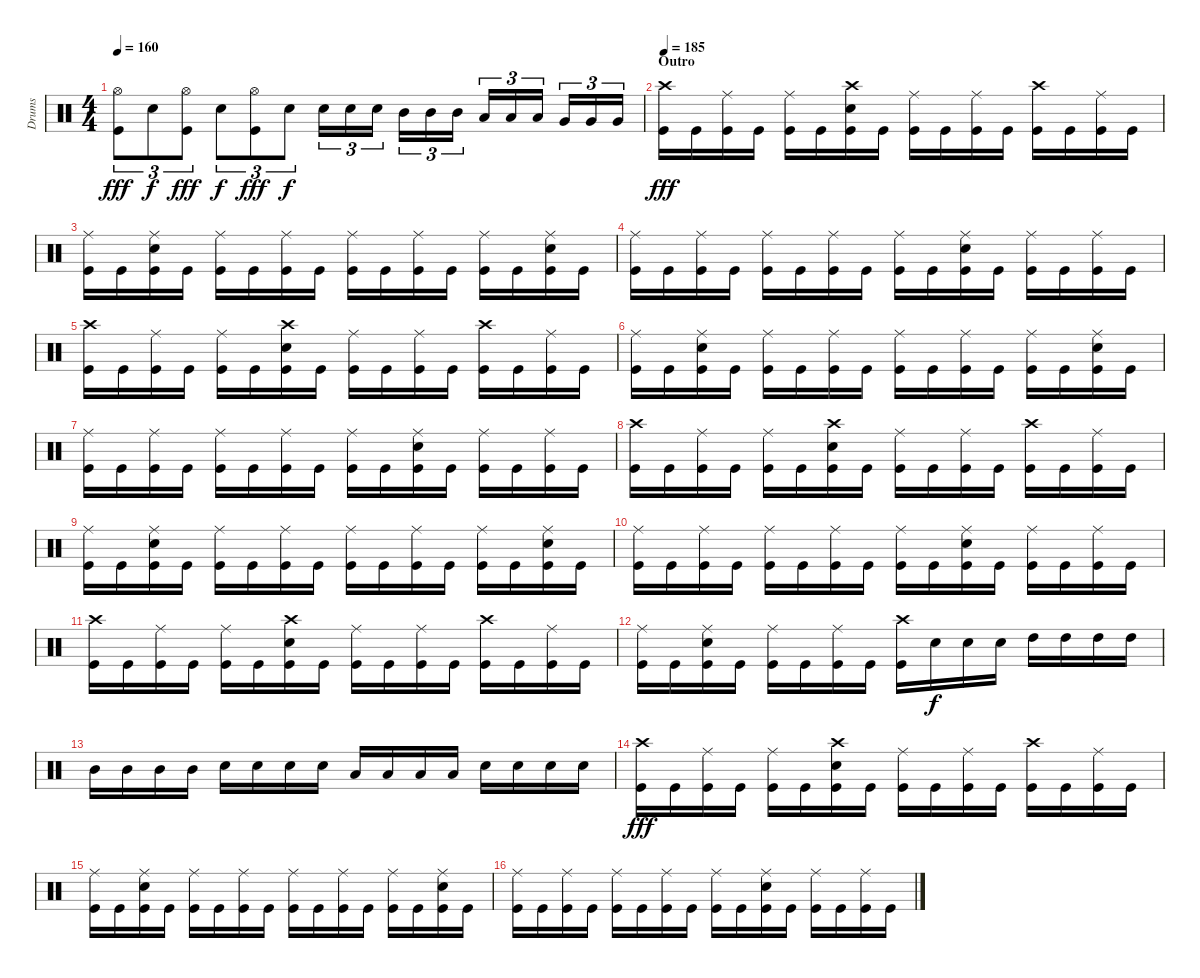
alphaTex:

\track ("Drums" "Drums") {instrument percussion}
\staff {score}
\articulation defaults
\ts (4 4)
\tempo 160
\clef neutral
\ks c
("Hi-Hat (open)" "Kick (hit)").8{tu (3 2) dy fff} "Electric Snare (hit)".8{tu (3 2) dy f} ("Hi-Hat (open)" "Kick (hit)").8{tu (3 2) dy fff} "Electric Snare (hit)".8{tu (3 2) dy f} ("Hi-Hat (open)" "Kick (hit)").8{tu (3 2) dy fff} "Electric Snare (hit)".8{tu (3 2) dy f} "Electric Snare (hit)".16{tu (3 2)} "Electric Snare (hit)".16{tu (3 2)} "Electric Snare (hit)".16{tu (3 2)} "Mid Tom (hit)".16{tu (3 2)} "Mid Tom (hit)".16{tu (3 2)} "Mid Tom (hit)".16{tu (3 2)} "Low Tom (hit)".16{tu (3 2)} "Low Tom (hit)".16{tu (3 2)} "Low Tom (hit)".16{tu (3 2)} "Very Low Tom (hit)".16{tu (3 2)} "Very Low Tom (hit)".16{tu (3 2)} "Very Low Tom (hit)".16{tu (3 2)} |
\section ("" "Outro")
\tempo 185
("Crash high (hit)" "Kick (hit)").16{dy fff} "Kick (hit)".16 ("Ride (middle)" "Kick (hit)").16 "Kick (hit)".16 ("Ride (middle)" "Kick (hit)").16 "Kick (hit)".16 ("Crash high (hit)" "Electric Snare (hit)" "Kick (hit)").16 "Kick (hit)".16 ("Ride (middle)" "Kick (hit)").16 "Kick (hit)".16 ("Ride (middle)" "Kick (hit)").16 "Kick (hit)".16 ("Crash high (hit)" "Kick (hit)").16 "Kick (hit)".16 ("Ride (middle)" "Kick (hit)").16 "Kick (hit)".16 |
("Ride (middle)" "Kick (hit)").16 "Kick (hit)".16 ("Ride (middle)" "Electric Snare (hit)" "Kick (hit)").16 "Kick (hit)".16 ("Ride (middle)" "Kick (hit)").16 "Kick (hit)".16 ("Ride (middle)" "Kick (hit)").16 "Kick (hit)".16 ("Ride (middle)" "Kick (hit)").16 "Kick (hit)".16 ("Ride (middle)" "Kick (hit)").16 "Kick (hit)".16 ("Ride (middle)" "Kick (hit)").16 "Kick (hit)".16 ("Ride (middle)" "Electric Snare (hit)" "Kick (hit)").16 "Kick (hit)".16 |
("Ride (middle)" "Kick (hit)").16 "Kick (hit)".16 ("Ride (middle)" "Kick (hit)").16 "Kick (hit)".16 ("Ride (middle)" "Kick (hit)").16 "Kick (hit)".16 ("Ride (middle)" "Kick (hit)").16 "Kick (hit)".16 ("Ride (middle)" "Kick (hit)").16 "Kick (hit)".16 ("Ride (middle)" "Electric Snare (hit)" "Kick (hit)").16 "Kick (hit)".16 ("Ride (middle)" "Kick (hit)").16 "Kick (hit)".16 ("Ride (middle)" "Kick (hit)").16 "Kick (hit)".16 |
("Crash high (hit)" "Kick (hit)").16 "Kick (hit)".16 ("Ride (middle)" "Kick (hit)").16 "Kick (hit)".16 ("Ride (middle)" "Kick (hit)").16 "Kick (hit)".16 ("Crash high (hit)" "Electric Snare (hit)" "Kick (hit)").16 "Kick (hit)".16 ("Ride (middle)" "Kick (hit)").16 "Kick (hit)".16 ("Ride (middle)" "Kick (hit)").16 "Kick (hit)".16 ("Crash high (hit)" "Kick (hit)").16 "Kick (hit)".16 ("Ride (middle)" "Kick (hit)").16 "Kick (hit)".16 |
("Ride (middle)" "Kick (hit)").16 "Kick (hit)".16 ("Ride (middle)" "Electric Snare (hit)" "Kick (hit)").16 "Kick (hit)".16 ("Ride (middle)" "Kick (hit)").16 "Kick (hit)".16 ("Ride (middle)" "Kick (hit)").16 "Kick (hit)".16 ("Ride (middle)" "Kick (hit)").16 "Kick (hit)".16 ("Ride (middle)" "Kick (hit)").16 "Kick (hit)".16 ("Ride (middle)" "Kick (hit)").16 "Kick (hit)".16 ("Ride (middle)" "Electric Snare (hit)" "Kick (hit)").16 "Kick (hit)".16 |
("Ride (middle)" "Kick (hit)").16 "Kick (hit)".16 ("Ride (middle)" "Kick (hit)").16 "Kick (hit)".16 ("Ride (middle)" "Kick (hit)").16 "Kick (hit)".16 ("Ride (middle)" "Kick (hit)").16 "Kick (hit)".16 ("Ride (middle)" "Kick (hit)").16 "Kick (hit)".16 ("Ride (middle)" "Electric Snare (hit)" "Kick (hit)").16 "Kick (hit)".16 ("Ride (middle)" "Kick (hit)").16 "Kick (hit)".16 ("Ride (middle)" "Kick (hit)").16 "Kick (hit)".16 |
("Crash high (hit)" "Kick (hit)").16 "Kick (hit)".16 ("Ride (middle)" "Kick (hit)").16 "Kick (hit)".16 ("Ride (middle)" "Kick (hit)").16 "Kick (hit)".16 ("Crash high (hit)" "Electric Snare (hit)" "Kick (hit)").16 "Kick (hit)".16 ("Ride (middle)" "Kick (hit)").16 "Kick (hit)".16 ("Ride (middle)" "Kick (hit)").16 "Kick (hit)".16 ("Crash high (hit)" "Kick (hit)").16 "Kick (hit)".16 ("Ride (middle)" "Kick (hit)").16 "Kick (hit)".16 |
("Ride (middle)" "Kick (hit)").16 "Kick (hit)".16 ("Ride (middle)" "Electric Snare (hit)" "Kick (hit)").16 "Kick (hit)".16 ("Ride (middle)" "Kick (hit)").16 "Kick (hit)".16 ("Ride (middle)" "Kick (hit)").16 "Kick (hit)".16 ("Ride (middle)" "Kick (hit)").16 "Kick (hit)".16 ("Ride (middle)" "Kick (hit)").16 "Kick (hit)".16 ("Ride (middle)" "Kick (hit)").16 "Kick (hit)".16 ("Ride (middle)" "Electric Snare (hit)" "Kick (hit)").16 "Kick (hit)".16 |
("Ride (middle)" "Kick (hit)").16 "Kick (hit)".16 ("Ride (middle)" "Kick (hit)").16 "Kick (hit)".16 ("Ride (middle)" "Kick (hit)").16 "Kick (hit)".16 ("Ride (middle)" "Kick (hit)").16 "Kick (hit)".16 ("Ride (middle)" "Kick (hit)").16 "Kick (hit)".16 ("Ride (middle)" "Electric Snare (hit)" "Kick (hit)").16 "Kick (hit)".16 ("Ride (middle)" "Kick (hit)").16 "Kick (hit)".16 ("Ride (middle)" "Kick (hit)").16 "Kick (hit)".16 |
("Crash high (hit)" "Kick (hit)").16 "Kick (hit)".16 ("Ride (middle)" "Kick (hit)").16 "Kick (hit)".16 ("Ride (middle)" "Kick (hit)").16 "Kick (hit)".16 ("Crash high (hit)" "Electric Snare (hit)" "Kick (hit)").16 "Kick (hit)".16 ("Ride (middle)" "Kick (hit)").16 "Kick (hit)".16 ("Ride (middle)" "Kick (hit)").16 "Kick (hit)".16 ("Crash high (hit)" "Kick (hit)").16 "Kick (hit)".16 ("Ride (middle)" "Kick (hit)").16 "Kick (hit)".16 |
("Ride (middle)" "Kick (hit)").16 "Kick (hit)".16 ("Ride (middle)" "Electric Snare (hit)" "Kick (hit)").16 "Kick (hit)".16 ("Ride (middle)" "Kick (hit)").16 "Kick (hit)".16 ("Ride (middle)" "Kick (hit)").16 "Kick (hit)".16 ("Crash high (hit)" "Kick (hit)").16 "Electric Snare (hit)".16{dy f} "Electric Snare (hit)".16 "Electric Snare (hit)".16 "High Tom (hit)".16 "High Tom (hit)".16 "High Tom (hit)".16 "High Tom (hit)".16 |
"Mid Tom (hit)".16 "Mid Tom (hit)".16 "Mid Tom (hit)".16 "Mid Tom (hit)".16 "Electric Snare (hit)".16 "Electric Snare (hit)".16 "Electric Snare (hit)".16 "Electric Snare (hit)".16 "Low Tom (hit)".16 "Low Tom (hit)".16 "Low Tom (hit)".16 "Low Tom (hit)".16 "Electric Snare (hit)".16 "Electric Snare (hit)".16 "Electric Snare (hit)".16 "Electric Snare (hit)".16 |
("Crash high (hit)" "Kick (hit)").16{dy fff} "Kick (hit)".16 ("Ride (middle)" "Kick (hit)").16 "Kick (hit)".16 ("Ride (middle)" "Kick (hit)").16 "Kick (hit)".16 ("Crash high (hit)" "Electric Snare (hit)" "Kick (hit)").16 "Kick (hit)".16 ("Ride (middle)" "Kick (hit)").16 "Kick (hit)".16 ("Ride (middle)" "Kick (hit)").16 "Kick (hit)".16 ("Crash high (hit)" "Kick (hit)").16 "Kick (hit)".16 ("Ride (middle)" "Kick (hit)").16 "Kick (hit)".16 |
("Ride (middle)" "Kick (hit)").16 "Kick (hit)".16 ("Ride (middle)" "Electric Snare (hit)" "Kick (hit)").16 "Kick (hit)".16 ("Ride (middle)" "Kick (hit)").16 "Kick (hit)".16 ("Ride (middle)" "Kick (hit)").16 "Kick (hit)".16 ("Ride (middle)" "Kick (hit)").16 "Kick (hit)".16 ("Ride (middle)" "Kick (hit)").16 "Kick (hit)".16 ("Ride (middle)" "Kick (hit)").16 "Kick (hit)".16 ("Ride (middle)" "Electric Snare (hit)" "Kick (hit)").16 "Kick (hit)".16 |
("Ride (middle)" "Kick (hit)").16 "Kick (hit)".16 ("Ride (middle)" "Kick (hit)").16 "Kick (hit)".16 ("Ride (middle)" "Kick (hit)").16 "Kick (hit)".16 ("Ride (middle)" "Kick (hit)").16 "Kick (hit)".16 ("Ride (middle)" "Kick (hit)").16 "Kick (hit)".16 ("Ride (middle)" "Electric Snare (hit)" "Kick (hit)").16 "Kick (hit)".16 ("Ride (middle)" "Kick (hit)").16 "Kick (hit)".16 ("Ride (middle)" "Kick (hit)").16 "Kick (hit)".16
